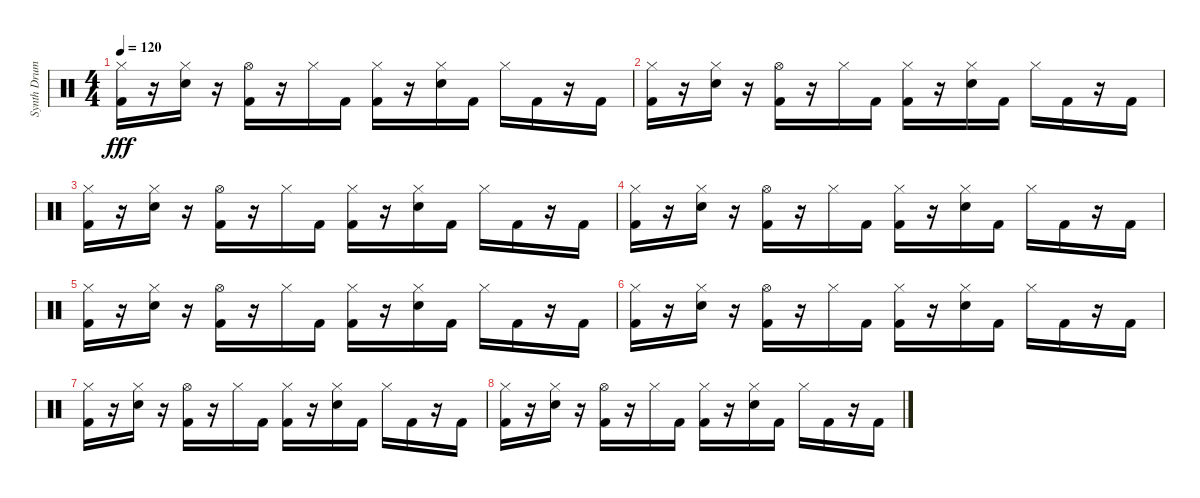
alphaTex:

\track ("Synth Drums" "Synth Drum") {instrument percussion}
\staff {score}
\articulation defaults
\ts (4 4)
\tempo 120
\clef neutral
\ks c
("Hi-Hat (closed)" "Kick (hit) 2").16{dy fff} r.16 ("Hi-Hat (closed)" "Snare (hit) 2").16 r.16 ("Hi-Hat (open)" "Kick (hit) 2").16 r.16 "Hi-Hat (closed)".16 "Kick (hit) 2".16 ("Hi-Hat (closed)" "Kick (hit) 2").16 r.16 ("Hi-Hat (closed)" "Snare (hit) 2").16 "Kick (hit) 2".16 "Hi-Hat (closed)".16 "Kick (hit) 2".16 r.16 "Kick (hit) 2".16 |
("Hi-Hat (closed)" "Kick (hit) 2").16 r.16 ("Hi-Hat (closed)" "Snare (hit) 2").16 r.16 ("Hi-Hat (open)" "Kick (hit) 2").16 r.16 "Hi-Hat (closed)".16 "Kick (hit) 2".16 ("Hi-Hat (closed)" "Kick (hit) 2").16 r.16 ("Hi-Hat (closed)" "Snare (hit) 2").16 "Kick (hit) 2".16 "Hi-Hat (closed)".16 "Kick (hit) 2".16 r.16 "Kick (hit) 2".16 |
("Hi-Hat (closed)" "Kick (hit) 2").16 r.16 ("Hi-Hat (closed)" "Snare (hit) 2").16 r.16 ("Hi-Hat (open)" "Kick (hit) 2").16 r.16 "Hi-Hat (closed)".16 "Kick (hit) 2".16 ("Hi-Hat (closed)" "Kick (hit) 2").16 r.16 ("Hi-Hat (closed)" "Snare (hit) 2").16 "Kick (hit) 2".16 "Hi-Hat (closed)".16 "Kick (hit) 2".16 r.16 "Kick (hit) 2".16 |
("Hi-Hat (closed)" "Kick (hit) 2").16 r.16 ("Hi-Hat (closed)" "Snare (hit) 2").16 r.16 ("Hi-Hat (open)" "Kick (hit) 2").16 r.16 "Hi-Hat (closed)".16 "Kick (hit) 2".16 ("Hi-Hat (closed)" "Kick (hit) 2").16 r.16 ("Hi-Hat (closed)" "Snare (hit) 2").16 "Kick (hit) 2".16 "Hi-Hat (closed)".16 "Kick (hit) 2".16 r.16 "Kick (hit) 2".16 |
("Hi-Hat (closed)" "Kick (hit) 2").16 r.16 ("Hi-Hat (closed)" "Snare (hit) 2").16 r.16 ("Hi-Hat (open)" "Kick (hit) 2").16 r.16 "Hi-Hat (closed)".16 "Kick (hit) 2".16 ("Hi-Hat (closed)" "Kick (hit) 2").16 r.16 ("Hi-Hat (closed)" "Snare (hit) 2").16 "Kick (hit) 2".16 "Hi-Hat (closed)".16 "Kick (hit) 2".16 r.16 "Kick (hit) 2".16 |
("Hi-Hat (closed)" "Kick (hit) 2").16 r.16 ("Hi-Hat (closed)" "Snare (hit) 2").16 r.16 ("Hi-Hat (open)" "Kick (hit) 2").16 r.16 "Hi-Hat (closed)".16 "Kick (hit) 2".16 ("Hi-Hat (closed)" "Kick (hit) 2").16 r.16 ("Hi-Hat (closed)" "Snare (hit) 2").16 "Kick (hit) 2".16 "Hi-Hat (closed)".16 "Kick (hit) 2".16 r.16 "Kick (hit) 2".16 |
("Hi-Hat (closed)" "Kick (hit) 2").16 r.16 ("Hi-Hat (closed)" "Snare (hit) 2").16 r.16 ("Hi-Hat (open)" "Kick (hit) 2").16 r.16 "Hi-Hat (closed)".16 "Kick (hit) 2".16 ("Hi-Hat (closed)" "Kick (hit) 2").16 r.16 ("Hi-Hat (closed)" "Snare (hit) 2").16 "Kick (hit) 2".16 "Hi-Hat (closed)".16 "Kick (hit) 2".16 r.16 "Kick (hit) 2".16 |
("Hi-Hat (closed)" "Kick (hit) 2").16 r.16 ("Hi-Hat (closed)" "Snare (hit) 2").16 r.16 ("Hi-Hat (open)" "Kick (hit) 2").16 r.16 "Hi-Hat (closed)".16 "Kick (hit) 2".16 ("Hi-Hat (closed)" "Kick (hit) 2").16 r.16 ("Hi-Hat (closed)" "Snare (hit) 2").16 "Kick (hit) 2".16 "Hi-Hat (closed)".16 "Kick (hit) 2".16 r.16 "Kick (hit) 2".16
